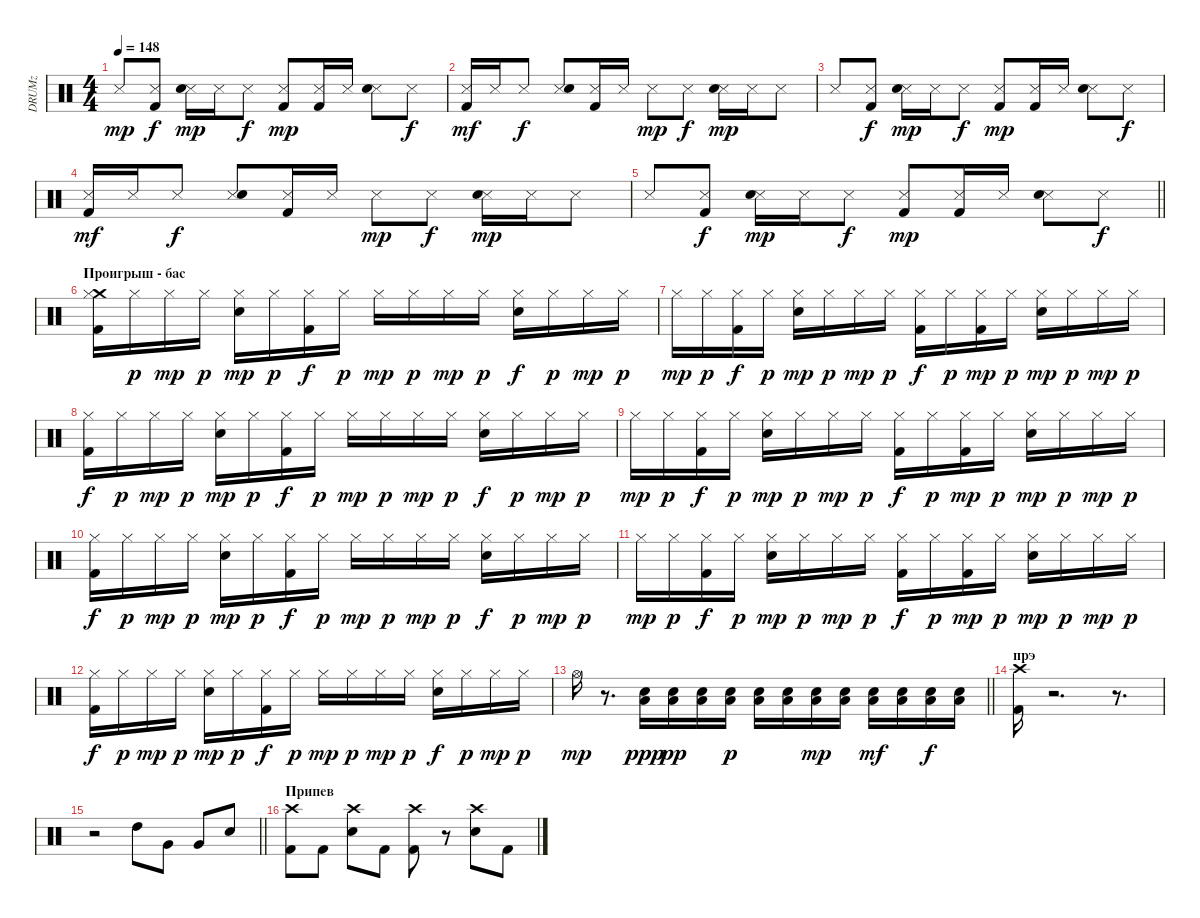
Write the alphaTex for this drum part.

\track ("DRUMz" "DRUMz") {instrument percussion}
\staff {score}
\articulation defaults
\ts (4 4)
\tempo 148
\clef neutral
\ks c "Snare (side stick) 3".8{dy mp}
("Snare (side stick) 3" "Kick (hit) 2").8{dy f} ("Snare (side stick) 3" "Electric Snare (hit)").16{dy mp} "Snare (side stick) 3".16 "Snare (side stick) 3".8{dy f} ("Snare (side stick) 3" "Kick (hit) 2").8{dy mp} ("Snare (side stick) 3" "Kick (hit) 2").16 "Snare (side stick) 3".16 ("Snare (side stick) 3" "Electric Snare (hit)").8 "Snare (side stick) 3".8{dy f} |
("Snare (side stick) 3" "Kick (hit) 2").16{dy mf} "Snare (side stick) 3".16 "Snare (side stick) 3".8{dy f} ("Snare (side stick) 3" "Electric Snare (hit)").8 ("Snare (side stick) 3" "Kick (hit) 2").16 "Snare (side stick) 3".16 "Snare (side stick) 3".8{dy mp} "Snare (side stick) 3".8{dy f} ("Snare (side stick) 3" "Electric Snare (hit)").16{dy mp} "Snare (side stick) 3".16 "Snare (side stick) 3".8 |
"Snare (side stick) 3".8 ("Snare (side stick) 3" "Kick (hit) 2").8{dy f} ("Snare (side stick) 3" "Electric Snare (hit)").16{dy mp} "Snare (side stick) 3".16 "Snare (side stick) 3".8{dy f} ("Snare (side stick) 3" "Kick (hit) 2").8{dy mp} ("Snare (side stick) 3" "Kick (hit) 2").16 "Snare (side stick) 3".16 ("Snare (side stick) 3" "Electric Snare (hit)").8 "Snare (side stick) 3".8{dy f} |
("Snare (side stick) 3" "Kick (hit) 2").16{dy mf} "Snare (side stick) 3".16 "Snare (side stick) 3".8{dy f} ("Snare (side stick) 3" "Electric Snare (hit)").8 ("Snare (side stick) 3" "Kick (hit) 2").16 "Snare (side stick) 3".16 "Snare (side stick) 3".8{dy mp} "Snare (side stick) 3".8{dy f} ("Snare (side stick) 3" "Electric Snare (hit)").16{dy mp} "Snare (side stick) 3".16 "Snare (side stick) 3".8 |
\barLineRight lightlight "Snare (side stick) 3".8
("Snare (side stick) 3" "Kick (hit) 2").8{dy f} ("Snare (side stick) 3" "Electric Snare (hit)").16{dy mp} "Snare (side stick) 3".16 "Snare (side stick) 3".8{dy f} ("Snare (side stick) 3" "Kick (hit) 2").8{dy mp} ("Snare (side stick) 3" "Kick (hit) 2").16 "Snare (side stick) 3".16 ("Snare (side stick) 3" "Electric Snare (hit)").8 "Snare (side stick) 3".8{dy f} |
\section ("" "Проигрыш - бас")
("Crash medium (hit)" "Hi-Hat (closed)" "Kick (hit) 2").16 "Hi-Hat (closed)".16{dy p} "Hi-Hat (closed)".16{dy mp} "Hi-Hat (closed)".16{dy p} ("Hi-Hat (closed)" "Electric Snare (hit)").16{dy mp} "Hi-Hat (closed)".16{dy p} ("Hi-Hat (closed)" "Kick (hit) 2").16{dy f} "Hi-Hat (closed)".16{dy p} "Hi-Hat (closed)".16{dy mp} "Hi-Hat (closed)".16{dy p} "Hi-Hat (closed)".16{dy mp} "Hi-Hat (closed)".16{dy p} ("Hi-Hat (closed)" "Electric Snare (hit)").16{dy f} "Hi-Hat (closed)".16{dy p} "Hi-Hat (closed)".16{dy mp} "Hi-Hat (closed)".16{dy p} |
"Hi-Hat (closed)".16{dy mp} "Hi-Hat (closed)".16{dy p} ("Hi-Hat (closed)" "Kick (hit) 2").16{dy f} "Hi-Hat (closed)".16{dy p} ("Hi-Hat (closed)" "Electric Snare (hit)").16{dy mp} "Hi-Hat (closed)".16{dy p} "Hi-Hat (closed)".16{dy mp} "Hi-Hat (closed)".16{dy p} ("Hi-Hat (closed)" "Kick (hit) 2").16{dy f} "Hi-Hat (closed)".16{dy p} ("Hi-Hat (closed)" "Kick (hit) 2").16{dy mp} "Hi-Hat (closed)".16{dy p} ("Hi-Hat (closed)" "Electric Snare (hit)").16{dy mp} "Hi-Hat (closed)".16{dy p} "Hi-Hat (closed)".16{dy mp} "Hi-Hat (closed)".16{dy p} |
("Hi-Hat (closed)" "Kick (hit) 2").16{dy f} "Hi-Hat (closed)".16{dy p} "Hi-Hat (closed)".16{dy mp} "Hi-Hat (closed)".16{dy p} ("Hi-Hat (closed)" "Electric Snare (hit)").16{dy mp} "Hi-Hat (closed)".16{dy p} ("Hi-Hat (closed)" "Kick (hit) 2").16{dy f} "Hi-Hat (closed)".16{dy p} "Hi-Hat (closed)".16{dy mp} "Hi-Hat (closed)".16{dy p} "Hi-Hat (closed)".16{dy mp} "Hi-Hat (closed)".16{dy p} ("Hi-Hat (closed)" "Electric Snare (hit)").16{dy f} "Hi-Hat (closed)".16{dy p} "Hi-Hat (closed)".16{dy mp} "Hi-Hat (closed)".16{dy p} |
"Hi-Hat (closed)".16{dy mp} "Hi-Hat (closed)".16{dy p} ("Hi-Hat (closed)" "Kick (hit) 2").16{dy f} "Hi-Hat (closed)".16{dy p} ("Hi-Hat (closed)" "Electric Snare (hit)").16{dy mp} "Hi-Hat (closed)".16{dy p} "Hi-Hat (closed)".16{dy mp} "Hi-Hat (closed)".16{dy p} ("Hi-Hat (closed)" "Kick (hit) 2").16{dy f} "Hi-Hat (closed)".16{dy p} ("Hi-Hat (closed)" "Kick (hit) 2").16{dy mp} "Hi-Hat (closed)".16{dy p} ("Hi-Hat (closed)" "Electric Snare (hit)").16{dy mp} "Hi-Hat (closed)".16{dy p} "Hi-Hat (closed)".16{dy mp} "Hi-Hat (closed)".16{dy p} |
("Hi-Hat (closed)" "Kick (hit) 2").16{dy f} "Hi-Hat (closed)".16{dy p} "Hi-Hat (closed)".16{dy mp} "Hi-Hat (closed)".16{dy p} ("Hi-Hat (closed)" "Electric Snare (hit)").16{dy mp} "Hi-Hat (closed)".16{dy p} ("Hi-Hat (closed)" "Kick (hit) 2").16{dy f} "Hi-Hat (closed)".16{dy p} "Hi-Hat (closed)".16{dy mp} "Hi-Hat (closed)".16{dy p} "Hi-Hat (closed)".16{dy mp} "Hi-Hat (closed)".16{dy p} ("Hi-Hat (closed)" "Electric Snare (hit)").16{dy f} "Hi-Hat (closed)".16{dy p} "Hi-Hat (closed)".16{dy mp} "Hi-Hat (closed)".16{dy p} |
"Hi-Hat (closed)".16{dy mp} "Hi-Hat (closed)".16{dy p} ("Hi-Hat (closed)" "Kick (hit) 2").16{dy f} "Hi-Hat (closed)".16{dy p} ("Hi-Hat (closed)" "Electric Snare (hit)").16{dy mp} "Hi-Hat (closed)".16{dy p} "Hi-Hat (closed)".16{dy mp} "Hi-Hat (closed)".16{dy p} ("Hi-Hat (closed)" "Kick (hit) 2").16{dy f} "Hi-Hat (closed)".16{dy p} ("Hi-Hat (closed)" "Kick (hit) 2").16{dy mp} "Hi-Hat (closed)".16{dy p} ("Hi-Hat (closed)" "Electric Snare (hit)").16{dy mp} "Hi-Hat (closed)".16{dy p} "Hi-Hat (closed)".16{dy mp} "Hi-Hat (closed)".16{dy p} |
("Hi-Hat (closed)" "Kick (hit) 2").16{dy f} "Hi-Hat (closed)".16{dy p} "Hi-Hat (closed)".16{dy mp} "Hi-Hat (closed)".16{dy p} ("Hi-Hat (closed)" "Electric Snare (hit)").16{dy mp} "Hi-Hat (closed)".16{dy p} ("Hi-Hat (closed)" "Kick (hit) 2").16{dy f} "Hi-Hat (closed)".16{dy p} "Hi-Hat (closed)".16{dy mp} "Hi-Hat (closed)".16{dy p} "Hi-Hat (closed)".16{dy mp} "Hi-Hat (closed)".16{dy p} ("Hi-Hat (closed)" "Electric Snare (hit)").16{dy f} "Hi-Hat (closed)".16{dy p} "Hi-Hat (closed)".16{dy mp} "Hi-Hat (closed)".16{dy p} |
\barLineRight lightlight "Hi-Hat (open)".16{dy mp}
r.8{d} ("Low Floor Tom (hit)" "Snare (hit) 2").16{dy ppp} ("Low Floor Tom (hit)" "Snare (hit) 2").16{dy pp} ("Low Floor Tom (hit)" "Snare (hit) 2").16 ("Low Floor Tom (hit)" "Snare (hit) 2").16{dy p} ("Low Floor Tom (hit)" "Snare (hit) 2").16 ("Low Floor Tom (hit)" "Snare (hit) 2").16 ("Low Floor Tom (hit)" "Snare (hit) 2").16{dy mp} ("Low Floor Tom (hit)" "Snare (hit) 2").16 ("Low Floor Tom (hit)" "Snare (hit) 2").16{dy mf} ("Low Floor Tom (hit)" "Snare (hit) 2").16 ("Low Floor Tom (hit)" "Snare (hit) 2").16{dy f} ("Low Floor Tom (hit)" "Snare (hit) 2").16 |
\section ("" "прэ")
("Kick (hit) 2" "Crash high (hit)").16 r.2{d} r.8{d} |
\barLineRight lightlight
r.2 "High Tom (hit)".8 "Very Low Tom (hit)".8 "Very Low Tom (hit)".8 "Snare (hit) 2".8 |
\section ("" "Припев")
("Crash high (hit)" "Kick (hit) 2").8 "Kick (hit) 2".8 ("Crash high (hit)" "Snare (hit) 2").8 "Kick (hit) 2".8 ("Crash high (hit)" "Kick (hit) 2").8 r.8 ("Crash high (hit)" "Snare (hit) 2").8 "Kick (hit) 2".8
